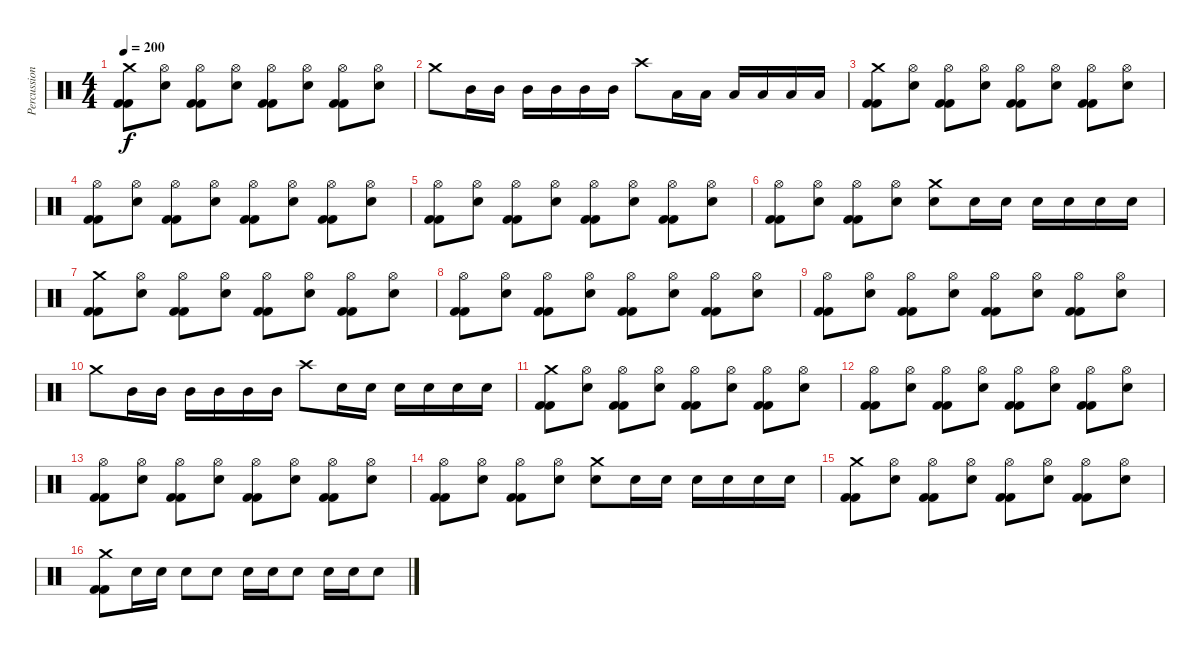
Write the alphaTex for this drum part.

\track ("Percussion" "Percussion") {instrument percussion}
\staff {score}
\articulation defaults
\ts (4 4)
\tempo 200
\clef neutral
\ks c
("Crash medium (hit)" "Kick (hit) 2" "Kick (hit) 2").8{dy f} ("Electric Snare (hit)" "Hi-Hat (open)").8 ("Hi-Hat (open)" "Kick (hit) 2" "Kick (hit) 2").8 ("Electric Snare (hit)" "Hi-Hat (open)").8 ("Hi-Hat (open)" "Kick (hit) 2" "Kick (hit) 2").8 ("Electric Snare (hit)" "Hi-Hat (open)").8 ("Hi-Hat (open)" "Kick (hit) 2" "Kick (hit) 2").8 ("Electric Snare (hit)" "Hi-Hat (open)").8 |
"Crash medium (hit)".8 "Mid Tom (hit)".16 "Mid Tom (hit)".16 "Mid Tom (hit)".16 "Mid Tom (hit)".16 "Mid Tom (hit)".16 "Mid Tom (hit)".16 "Crash high (hit)".8 "Low Tom (hit)".16 "Low Tom (hit)".16 "Low Tom (hit)".16 "Low Tom (hit)".16 "Low Tom (hit)".16 "Low Tom (hit)".16 |
("Crash medium (hit)" "Kick (hit) 2" "Kick (hit) 2").8 ("Electric Snare (hit)" "Hi-Hat (open)").8 ("Hi-Hat (open)" "Kick (hit) 2" "Kick (hit) 2").8 ("Electric Snare (hit)" "Hi-Hat (open)").8 ("Hi-Hat (open)" "Kick (hit) 2" "Kick (hit) 2").8 ("Electric Snare (hit)" "Hi-Hat (open)").8 ("Hi-Hat (open)" "Kick (hit) 2" "Kick (hit) 2").8 ("Electric Snare (hit)" "Hi-Hat (open)").8 |
("Hi-Hat (open)" "Kick (hit) 2" "Kick (hit) 2").8 ("Electric Snare (hit)" "Hi-Hat (open)").8 ("Hi-Hat (open)" "Kick (hit) 2" "Kick (hit) 2").8 ("Electric Snare (hit)" "Hi-Hat (open)").8 ("Hi-Hat (open)" "Kick (hit) 2" "Kick (hit) 2").8 ("Electric Snare (hit)" "Hi-Hat (open)").8 ("Hi-Hat (open)" "Kick (hit) 2" "Kick (hit) 2").8 ("Electric Snare (hit)" "Hi-Hat (open)").8 |
("Hi-Hat (open)" "Kick (hit) 2" "Kick (hit) 2").8 ("Electric Snare (hit)" "Hi-Hat (open)").8 ("Hi-Hat (open)" "Kick (hit) 2" "Kick (hit) 2").8 ("Electric Snare (hit)" "Hi-Hat (open)").8 ("Hi-Hat (open)" "Kick (hit) 2" "Kick (hit) 2").8 ("Electric Snare (hit)" "Hi-Hat (open)").8 ("Hi-Hat (open)" "Kick (hit) 2" "Kick (hit) 2").8 ("Electric Snare (hit)" "Hi-Hat (open)").8 |
("Hi-Hat (open)" "Kick (hit) 2" "Kick (hit) 2").8 ("Electric Snare (hit)" "Hi-Hat (open)").8 ("Hi-Hat (open)" "Kick (hit) 2" "Kick (hit) 2").8 ("Electric Snare (hit)" "Hi-Hat (open)").8 ("Crash medium (hit)" "Electric Snare (hit)").8 "Electric Snare (hit)".16 "Electric Snare (hit)".16 "Electric Snare (hit)".16 "Electric Snare (hit)".16 "Electric Snare (hit)".16 "Electric Snare (hit)".16 |
("Crash medium (hit)" "Kick (hit) 2" "Kick (hit) 2").8 ("Electric Snare (hit)" "Hi-Hat (open)").8 ("Hi-Hat (open)" "Kick (hit) 2" "Kick (hit) 2").8 ("Electric Snare (hit)" "Hi-Hat (open)").8 ("Hi-Hat (open)" "Kick (hit) 2" "Kick (hit) 2").8 ("Electric Snare (hit)" "Hi-Hat (open)").8 ("Hi-Hat (open)" "Kick (hit) 2" "Kick (hit) 2").8 ("Electric Snare (hit)" "Hi-Hat (open)").8 |
("Hi-Hat (open)" "Kick (hit) 2" "Kick (hit) 2").8 ("Hi-Hat (open)" "Electric Snare (hit)").8 ("Hi-Hat (open)" "Kick (hit) 2" "Kick (hit) 2").8 ("Hi-Hat (open)" "Electric Snare (hit)").8 ("Hi-Hat (open)" "Kick (hit) 2" "Kick (hit) 2").8 ("Hi-Hat (open)" "Electric Snare (hit)").8 ("Hi-Hat (open)" "Kick (hit) 2" "Kick (hit) 2").8 ("Hi-Hat (open)" "Electric Snare (hit)").8 |
("Hi-Hat (open)" "Kick (hit) 2" "Kick (hit) 2").8 ("Electric Snare (hit)" "Hi-Hat (open)").8 ("Hi-Hat (open)" "Kick (hit) 2" "Kick (hit) 2").8 ("Electric Snare (hit)" "Hi-Hat (open)").8 ("Hi-Hat (open)" "Kick (hit) 2" "Kick (hit) 2").8 ("Electric Snare (hit)" "Hi-Hat (open)").8 ("Hi-Hat (open)" "Kick (hit) 2" "Kick (hit) 2").8 ("Electric Snare (hit)" "Hi-Hat (open)").8 |
"Crash medium (hit)".8 "Mid Tom (hit)".16 "Mid Tom (hit)".16 "Mid Tom (hit)".16 "Mid Tom (hit)".16 "Mid Tom (hit)".16 "Mid Tom (hit)".16 "Crash high (hit)".8 "Electric Snare (hit)".16 "Electric Snare (hit)".16 "Electric Snare (hit)".16 "Electric Snare (hit)".16 "Electric Snare (hit)".16 "Electric Snare (hit)".16 |
("Crash medium (hit)" "Kick (hit) 2" "Kick (hit) 2").8 ("Electric Snare (hit)" "Hi-Hat (open)").8 ("Hi-Hat (open)" "Kick (hit) 2" "Kick (hit) 2").8 ("Electric Snare (hit)" "Hi-Hat (open)").8 ("Hi-Hat (open)" "Kick (hit) 2" "Kick (hit) 2").8 ("Electric Snare (hit)" "Hi-Hat (open)").8 ("Hi-Hat (open)" "Kick (hit) 2" "Kick (hit) 2").8 ("Electric Snare (hit)" "Hi-Hat (open)").8 |
("Hi-Hat (open)" "Kick (hit) 2" "Kick (hit) 2").8 ("Electric Snare (hit)" "Hi-Hat (open)").8 ("Hi-Hat (open)" "Kick (hit) 2" "Kick (hit) 2").8 ("Electric Snare (hit)" "Hi-Hat (open)").8 ("Hi-Hat (open)" "Kick (hit) 2" "Kick (hit) 2").8 ("Electric Snare (hit)" "Hi-Hat (open)").8 ("Hi-Hat (open)" "Kick (hit) 2" "Kick (hit) 2").8 ("Electric Snare (hit)" "Hi-Hat (open)").8 |
("Hi-Hat (open)" "Kick (hit) 2" "Kick (hit) 2").8 ("Electric Snare (hit)" "Hi-Hat (open)").8 ("Hi-Hat (open)" "Kick (hit) 2" "Kick (hit) 2").8 ("Electric Snare (hit)" "Hi-Hat (open)").8 ("Hi-Hat (open)" "Kick (hit) 2" "Kick (hit) 2").8 ("Electric Snare (hit)" "Hi-Hat (open)").8 ("Hi-Hat (open)" "Kick (hit) 2" "Kick (hit) 2").8 ("Electric Snare (hit)" "Hi-Hat (open)").8 |
("Hi-Hat (open)" "Kick (hit) 2" "Kick (hit) 2").8 ("Electric Snare (hit)" "Hi-Hat (open)").8 ("Hi-Hat (open)" "Kick (hit) 2" "Kick (hit) 2").8 ("Electric Snare (hit)" "Hi-Hat (open)").8 ("Crash medium (hit)" "Electric Snare (hit)").8 "Electric Snare (hit)".16 "Electric Snare (hit)".16 "Electric Snare (hit)".16 "Electric Snare (hit)".16 "Electric Snare (hit)".16 "Electric Snare (hit)".16 |
("Crash medium (hit)" "Kick (hit) 2" "Kick (hit) 2").8 ("Electric Snare (hit)" "Hi-Hat (open)").8 ("Hi-Hat (open)" "Kick (hit) 2" "Kick (hit) 2").8 ("Electric Snare (hit)" "Hi-Hat (open)").8 ("Hi-Hat (open)" "Kick (hit) 2" "Kick (hit) 2").8 ("Electric Snare (hit)" "Hi-Hat (open)").8 ("Hi-Hat (open)" "Kick (hit) 2" "Kick (hit) 2").8 ("Electric Snare (hit)" "Hi-Hat (open)").8 |
("Crash medium (hit)" "Kick (hit) 2" "Kick (hit) 2").8 "Electric Snare (hit)".16 "Electric Snare (hit)".16 "Electric Snare (hit)".8 "Electric Snare (hit)".8 "Electric Snare (hit)".16 "Electric Snare (hit)".16 "Electric Snare (hit)".8 "Electric Snare (hit)".16 "Electric Snare (hit)".16 "Electric Snare (hit)".8
